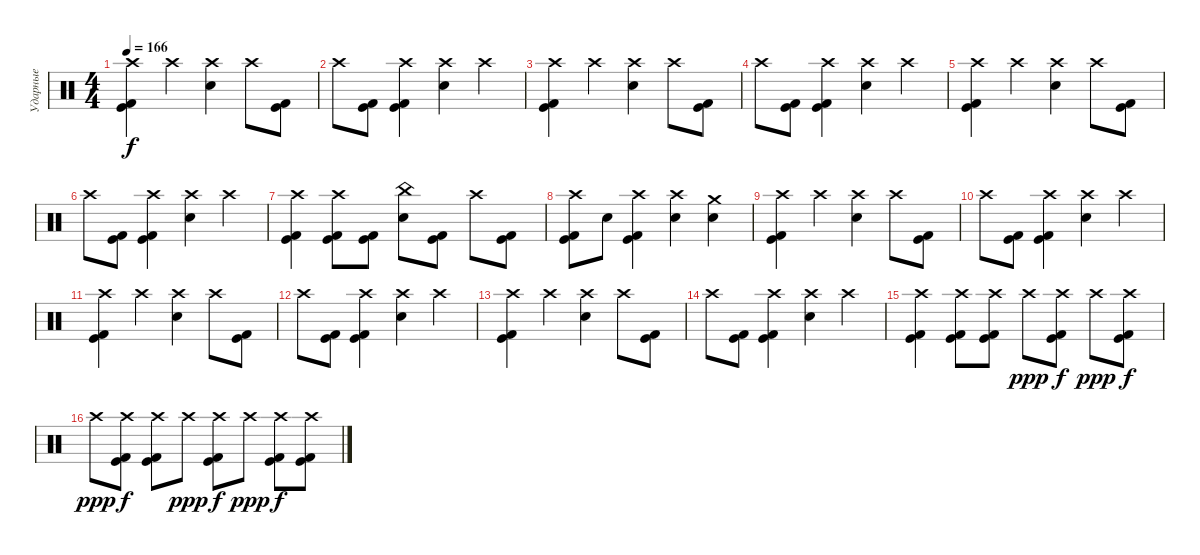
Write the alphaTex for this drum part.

\track ("Ударные" "Ударные") {instrument percussion}
\staff {score}
\articulation defaults
\ts (4 4)
\tempo 166
\clef neutral
\ks c
("Crash high (hit)" "Kick (hit)" "Kick (hit) 2").4{dy f} "Crash high (hit)".4 ("Crash high (hit)" "Electric Snare (hit)").4 "Crash high (hit)".8 ("Kick (hit)" "Kick (hit) 2").8 |
"Crash high (hit)".8 ("Kick (hit)" "Kick (hit) 2").8 ("Crash high (hit)" "Kick (hit)" "Kick (hit) 2").4 ("Crash high (hit)" "Electric Snare (hit)").4 "Crash high (hit)".4 |
("Crash high (hit)" "Kick (hit)" "Kick (hit) 2").4 "Crash high (hit)".4 ("Crash high (hit)" "Electric Snare (hit)").4 "Crash high (hit)".8 ("Kick (hit)" "Kick (hit) 2").8 |
"Crash high (hit)".8 ("Kick (hit)" "Kick (hit) 2").8 ("Crash high (hit)" "Kick (hit)" "Kick (hit) 2").4 ("Crash high (hit)" "Electric Snare (hit)").4 "Crash high (hit)".4 |
("Crash high (hit)" "Kick (hit)" "Kick (hit) 2").4 "Crash high (hit)".4 ("Crash high (hit)" "Electric Snare (hit)").4 "Crash high (hit)".8 ("Kick (hit)" "Kick (hit) 2").8 |
"Crash high (hit)".8 ("Kick (hit)" "Kick (hit) 2").8 ("Crash high (hit)" "Kick (hit)" "Kick (hit) 2").4 ("Crash high (hit)" "Electric Snare (hit)").4 "Crash high (hit)".4 |
("Crash high (hit)" "Kick (hit)" "Kick (hit) 2").4 ("Crash high (hit)" "Kick (hit)" "Kick (hit) 2").8 ("Kick (hit)" "Kick (hit) 2").8 ("China (hit)" "Electric Snare (hit)").8 ("Kick (hit)" "Kick (hit) 2").8 "Crash high (hit)".8 ("Kick (hit)" "Kick (hit) 2").8 |
("Crash high (hit)" "Kick (hit)" "Kick (hit) 2").8 "Electric Snare (hit)".8 ("Crash high (hit)" "Kick (hit)" "Kick (hit) 2").4 ("Crash high (hit)" "Electric Snare (hit)").4 ("Crash medium (hit)" "Electric Snare (hit)").4 |
("Crash high (hit)" "Kick (hit)" "Kick (hit) 2").4 "Crash high (hit)".4 ("Crash high (hit)" "Electric Snare (hit)").4 "Crash high (hit)".8 ("Kick (hit)" "Kick (hit) 2").8 |
"Crash high (hit)".8 ("Kick (hit)" "Kick (hit) 2").8 ("Crash high (hit)" "Kick (hit)" "Kick (hit) 2").4 ("Crash high (hit)" "Electric Snare (hit)").4 "Crash high (hit)".4 |
("Crash high (hit)" "Kick (hit)" "Kick (hit) 2").4 "Crash high (hit)".4 ("Crash high (hit)" "Electric Snare (hit)").4 "Crash high (hit)".8 ("Kick (hit)" "Kick (hit) 2").8 |
"Crash high (hit)".8 ("Kick (hit)" "Kick (hit) 2").8 ("Crash high (hit)" "Kick (hit)" "Kick (hit) 2").4 ("Crash high (hit)" "Electric Snare (hit)").4 "Crash high (hit)".4 |
("Crash high (hit)" "Kick (hit)" "Kick (hit) 2").4 "Crash high (hit)".4 ("Crash high (hit)" "Electric Snare (hit)").4 "Crash high (hit)".8 ("Kick (hit)" "Kick (hit) 2").8 |
"Crash high (hit)".8 ("Kick (hit)" "Kick (hit) 2").8 ("Crash high (hit)" "Kick (hit)" "Kick (hit) 2").4 ("Crash high (hit)" "Electric Snare (hit)").4 "Crash high (hit)".4 |
("Crash high (hit)" "Kick (hit)" "Kick (hit) 2").4 ("Crash high (hit)" "Kick (hit)" "Kick (hit) 2").8 ("Crash high (hit)" "Kick (hit)" "Kick (hit) 2").8 "Crash high (hit)".8{dy ppp} ("Crash high (hit)" "Kick (hit)" "Kick (hit) 2").8{dy f} "Crash high (hit)".8{dy ppp} ("Crash high (hit)" "Kick (hit)" "Kick (hit) 2").8{dy f} |
"Crash high (hit)".8{dy ppp} ("Crash high (hit)" "Kick (hit)" "Kick (hit) 2").8{dy f} ("Crash high (hit)" "Kick (hit)" "Kick (hit) 2").8 "Crash high (hit)".8{dy ppp} ("Crash high (hit)" "Kick (hit)" "Kick (hit) 2").8{dy f} "Crash high (hit)".8{dy ppp} ("Crash high (hit)" "Kick (hit)" "Kick (hit) 2").8{dy f} ("Crash high (hit)" "Kick (hit)" "Kick (hit) 2").8
